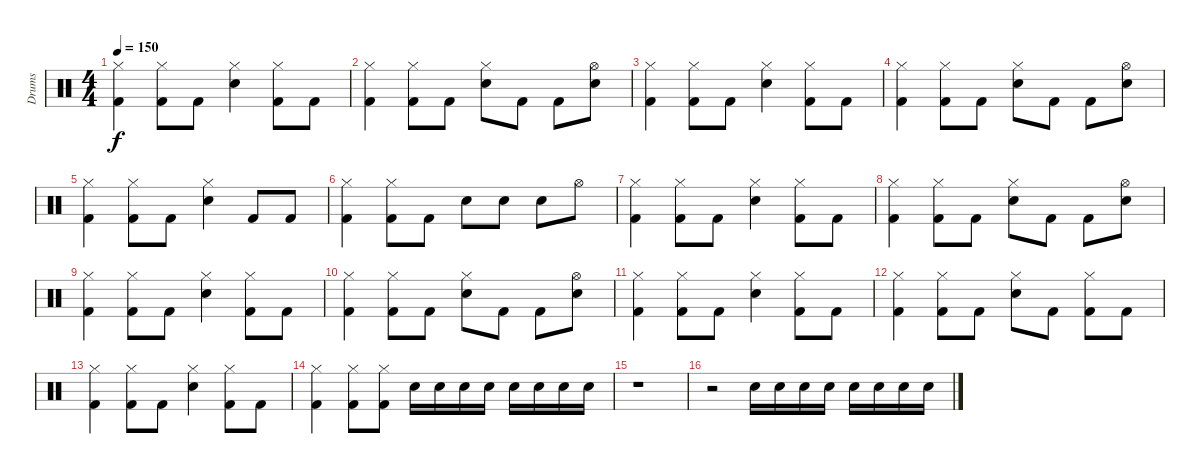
\track ("Drums" "Drums") {instrument percussion}
\staff {score}
\articulation defaults
\ts (4 4)
\tempo 150
\clef neutral
\ks c
("Hi-Hat (closed)" "Kick (hit) 2").4{dy f} ("Hi-Hat (closed)" "Kick (hit) 2").8 "Kick (hit) 2".8 ("Hi-Hat (closed)" "Snare (hit) 2").4 ("Hi-Hat (closed)" "Kick (hit) 2").8 "Kick (hit) 2".8 |
("Hi-Hat (closed)" "Kick (hit) 2").4 ("Hi-Hat (closed)" "Kick (hit) 2").8 "Kick (hit) 2".8 ("Snare (hit) 2" "Hi-Hat (closed)").8 "Kick (hit) 2".8 "Kick (hit) 2".8 ("Snare (hit) 2" "Hi-Hat (open)").8 |
("Hi-Hat (closed)" "Kick (hit) 2").4 ("Hi-Hat (closed)" "Kick (hit) 2").8 "Kick (hit) 2".8 ("Hi-Hat (closed)" "Snare (hit) 2").4 ("Hi-Hat (closed)" "Kick (hit) 2").8 "Kick (hit) 2".8 |
("Hi-Hat (closed)" "Kick (hit) 2").4 ("Hi-Hat (closed)" "Kick (hit) 2").8 "Kick (hit) 2".8 ("Snare (hit) 2" "Hi-Hat (closed)").8 "Kick (hit) 2".8 "Kick (hit) 2".8 ("Snare (hit) 2" "Hi-Hat (open)").8 |
("Hi-Hat (closed)" "Kick (hit) 2").4 ("Hi-Hat (closed)" "Kick (hit) 2").8 "Kick (hit) 2".8 ("Snare (hit) 2" "Hi-Hat (closed)").4 "Kick (hit) 2".8 "Kick (hit) 2".8 |
("Hi-Hat (closed)" "Kick (hit) 2").4 ("Kick (hit) 2" "Hi-Hat (closed)").8 "Kick (hit) 2".8 "Snare (hit) 2".8 "Snare (hit) 2".8 "Snare (hit) 2".8 "Hi-Hat (open)".8 |
("Hi-Hat (closed)" "Kick (hit) 2").4 ("Hi-Hat (closed)" "Kick (hit) 2").8 "Kick (hit) 2".8 ("Hi-Hat (closed)" "Snare (hit) 2").4 ("Hi-Hat (closed)" "Kick (hit) 2").8 "Kick (hit) 2".8 |
("Hi-Hat (closed)" "Kick (hit) 2").4 ("Hi-Hat (closed)" "Kick (hit) 2").8 "Kick (hit) 2".8 ("Snare (hit) 2" "Hi-Hat (closed)").8 "Kick (hit) 2".8 "Kick (hit) 2".8 ("Snare (hit) 2" "Hi-Hat (open)").8 |
("Hi-Hat (closed)" "Kick (hit) 2").4 ("Hi-Hat (closed)" "Kick (hit) 2").8 "Kick (hit) 2".8 ("Hi-Hat (closed)" "Snare (hit) 2").4 ("Hi-Hat (closed)" "Kick (hit) 2").8 "Kick (hit) 2".8 |
("Hi-Hat (closed)" "Kick (hit) 2").4 ("Hi-Hat (closed)" "Kick (hit) 2").8 "Kick (hit) 2".8 ("Snare (hit) 2" "Hi-Hat (closed)").8 "Kick (hit) 2".8 "Kick (hit) 2".8 ("Snare (hit) 2" "Hi-Hat (open)").8 |
("Hi-Hat (closed)" "Kick (hit) 2").4 ("Hi-Hat (closed)" "Kick (hit) 2").8 "Kick (hit) 2".8 ("Hi-Hat (closed)" "Snare (hit) 2").4 ("Hi-Hat (closed)" "Kick (hit) 2").8 "Kick (hit) 2".8 |
("Hi-Hat (closed)" "Kick (hit) 2").4 ("Hi-Hat (closed)" "Kick (hit) 2").8 "Kick (hit) 2".8 ("Hi-Hat (closed)" "Snare (hit) 2").8 "Kick (hit) 2".8 ("Hi-Hat (closed)" "Kick (hit) 2").8 "Kick (hit) 2".8 |
("Hi-Hat (closed)" "Kick (hit) 2").4 ("Hi-Hat (closed)" "Kick (hit) 2").8 "Kick (hit) 2".8 ("Hi-Hat (closed)" "Snare (hit) 2").4 ("Hi-Hat (closed)" "Kick (hit) 2").8 "Kick (hit) 2".8 |
("Hi-Hat (closed)" "Kick (hit) 2").4 ("Kick (hit) 2" "Hi-Hat (closed)").8 ("Kick (hit) 2" "Hi-Hat (closed)").8 "Snare (hit) 2".16 "Snare (hit) 2".16 "Snare (hit) 2".16 "Snare (hit) 2".16 "Snare (hit) 2".16 "Snare (hit) 2".16 "Snare (hit) 2".16 "Snare (hit) 2".16 |
r.1 |
r.2 "Snare (hit) 2".16 "Snare (hit) 2".16 "Snare (hit) 2".16 "Snare (hit) 2".16 "Snare (hit) 2".16 "Snare (hit) 2".16 "Snare (hit) 2".16 "Snare (hit) 2".16
